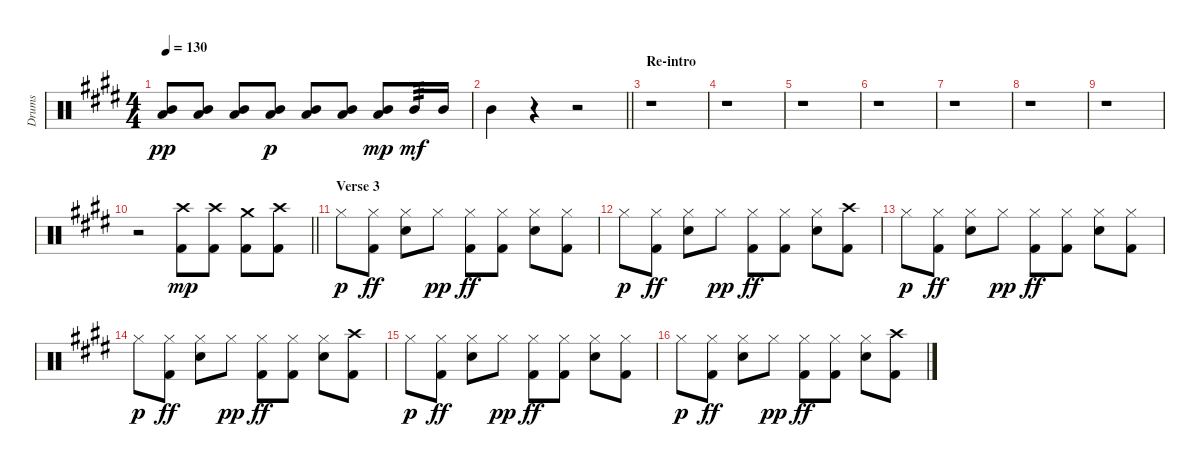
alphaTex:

\track ("Drums" "Drums") {instrument percussion}
\staff {score}
\articulation defaults
\ts (4 4)
\tempo 130
\clef neutral
\ks e
("Mid Tom (hit)" "Low Tom (hit)").8{dy pp} ("Low Tom (hit)" "Mid Tom (hit)").8 ("Low Tom (hit)" "Mid Tom (hit)").8 ("Low Tom (hit)" "Mid Tom (hit)").8{dy p} ("Low Tom (hit)" "Mid Tom (hit)").8 ("Low Tom (hit)" "Mid Tom (hit)").8 ("Low Tom (hit)" "Mid Tom (hit)").8{dy mp} "Mid Tom (hit)".16{tp 3 dy mf} "Mid Tom (hit)".16 |
\barLineRight lightlight
\ks c#minor "Mid Tom (hit)".4
r.4 r.2 |
\section ("" "Re-intro")
\ks e
r.1 |
\ks c#minor
r.1 |
r.1 |
r.1 |
\ks e
r.1 |
\ks c#minor
r.1 |
r.1 |
\barLineRight lightlight
r.2 ("Kick (hit) 2" "Crash high (hit)").8{dy mp} ("Kick (hit) 2" "Crash high (hit)").8 ("Kick (hit) 2" "Crash medium (hit)").8 ("Kick (hit) 2" "Crash high (hit)").8 |
\section ("" "Verse 3")
\ks e "Hi-Hat (closed)".8{dy p}
("Hi-Hat (closed)" "Kick (hit) 2").8{dy ff} ("Hi-Hat (closed)" "Electric Snare (hit)").8 "Hi-Hat (closed)".8{dy pp} ("Hi-Hat (closed)" "Kick (hit) 2").8{dy ff} ("Hi-Hat (closed)" "Kick (hit) 2").8 ("Hi-Hat (closed)" "Electric Snare (hit)").8 ("Hi-Hat (closed)" "Kick (hit) 2").8 |
\ks c#minor "Hi-Hat (closed)".8{dy p}
("Hi-Hat (closed)" "Kick (hit) 2").8{dy ff} ("Hi-Hat (closed)" "Electric Snare (hit)").8 "Hi-Hat (closed)".8{dy pp} ("Hi-Hat (closed)" "Kick (hit) 2").8{dy ff} ("Hi-Hat (closed)" "Kick (hit) 2").8 ("Hi-Hat (closed)" "Electric Snare (hit)").8 ("Crash high (hit)" "Kick (hit) 2").8 |
\ks e "Hi-Hat (closed)".8{dy p}
("Hi-Hat (closed)" "Kick (hit) 2").8{dy ff} ("Hi-Hat (closed)" "Electric Snare (hit)").8 "Hi-Hat (closed)".8{dy pp} ("Hi-Hat (closed)" "Kick (hit) 2").8{dy ff} ("Hi-Hat (closed)" "Kick (hit) 2").8 ("Hi-Hat (closed)" "Electric Snare (hit)").8 ("Hi-Hat (closed)" "Kick (hit) 2").8 |
\ks c#minor "Hi-Hat (closed)".8{dy p}
("Hi-Hat (closed)" "Kick (hit) 2").8{dy ff} ("Hi-Hat (closed)" "Electric Snare (hit)").8 "Hi-Hat (closed)".8{dy pp} ("Hi-Hat (closed)" "Kick (hit) 2").8{dy ff} ("Hi-Hat (closed)" "Kick (hit) 2").8 ("Hi-Hat (closed)" "Electric Snare (hit)").8 ("Crash high (hit)" "Kick (hit) 2").8 |
\ks e "Hi-Hat (closed)".8{dy p}
("Hi-Hat (closed)" "Kick (hit) 2").8{dy ff} ("Hi-Hat (closed)" "Electric Snare (hit)").8 "Hi-Hat (closed)".8{dy pp} ("Hi-Hat (closed)" "Kick (hit) 2").8{dy ff} ("Hi-Hat (closed)" "Kick (hit) 2").8 ("Hi-Hat (closed)" "Electric Snare (hit)").8 ("Hi-Hat (closed)" "Kick (hit) 2").8 |
\ks c#minor "Hi-Hat (closed)".8{dy p}
("Hi-Hat (closed)" "Kick (hit) 2").8{dy ff} ("Hi-Hat (closed)" "Electric Snare (hit)").8 "Hi-Hat (closed)".8{dy pp} ("Hi-Hat (closed)" "Kick (hit) 2").8{dy ff} ("Hi-Hat (closed)" "Kick (hit) 2").8 ("Hi-Hat (closed)" "Electric Snare (hit)").8 ("Crash high (hit)" "Kick (hit) 2").8
